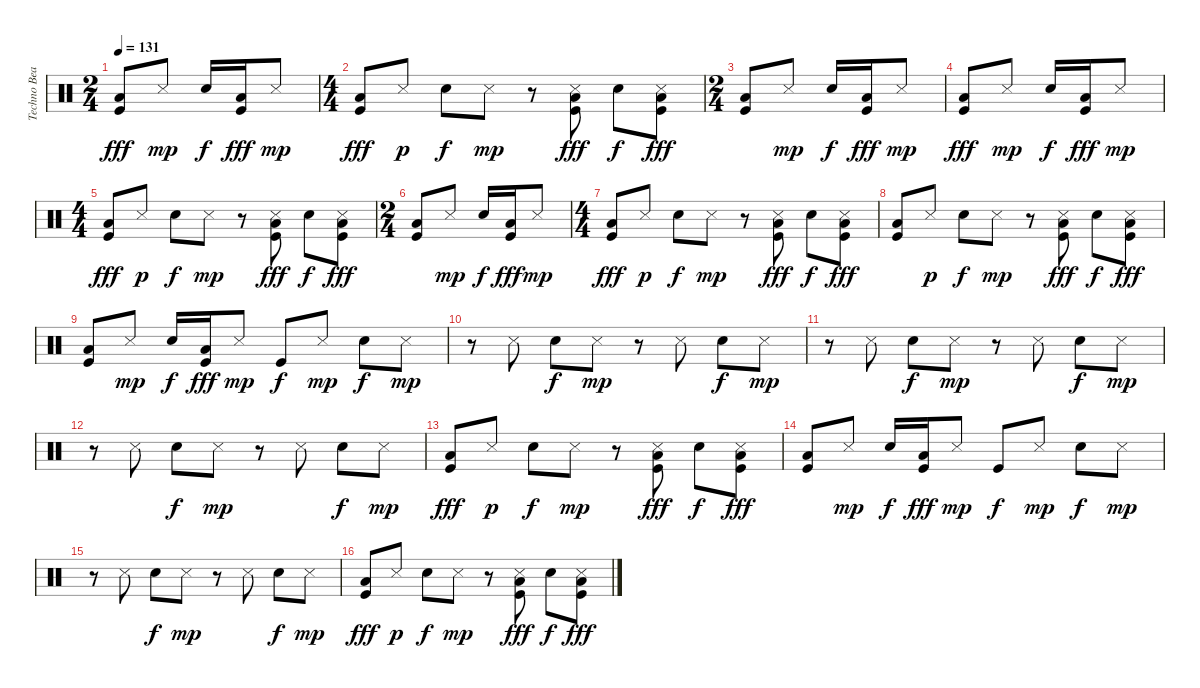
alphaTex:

\track ("Techno Beat" "Techno Bea") {instrument percussion}
\staff {score}
\articulation defaults
\ts (2 4)
\tempo 131
\clef neutral
\ks c
("Low Tom (hit)" "Kick (hit)").8{dy fff} "Snare (side stick) 3".8{dy mp} "Electric Snare (hit)".16{dy f} ("Low Tom (hit)" "Kick (hit)").16{dy fff} "Snare (side stick) 3".8{dy mp} |
\ts (4 4)
("Low Tom (hit)" "Kick (hit)").8{dy fff} "Snare (side stick) 3".8{dy p} "Electric Snare (hit)".8{dy f} "Snare (side stick) 3".8{dy mp} r.8 ("Snare (side stick) 3" "Low Tom (hit)" "Kick (hit)").8{dy fff} "Electric Snare (hit)".8{dy f} ("Snare (side stick) 3" "Low Tom (hit)" "Kick (hit)").8{dy fff} |
\ts (2 4)
("Low Tom (hit)" "Kick (hit)").8 "Snare (side stick) 3".8{dy mp} "Electric Snare (hit)".16{dy f} ("Low Tom (hit)" "Kick (hit)").16{dy fff} "Snare (side stick) 3".8{dy mp} |
("Low Tom (hit)" "Kick (hit)").8{dy fff} "Snare (side stick) 3".8{dy mp} "Electric Snare (hit)".16{dy f} ("Low Tom (hit)" "Kick (hit)").16{dy fff} "Snare (side stick) 3".8{dy mp} |
\ts (4 4)
("Low Tom (hit)" "Kick (hit)").8{dy fff} "Snare (side stick) 3".8{dy p} "Electric Snare (hit)".8{dy f} "Snare (side stick) 3".8{dy mp} r.8 ("Snare (side stick) 3" "Low Tom (hit)" "Kick (hit)").8{dy fff} "Electric Snare (hit)".8{dy f} ("Snare (side stick) 3" "Low Tom (hit)" "Kick (hit)").8{dy fff} |
\ts (2 4)
("Low Tom (hit)" "Kick (hit)").8 "Snare (side stick) 3".8{dy mp} "Electric Snare (hit)".16{dy f} ("Low Tom (hit)" "Kick (hit)").16{dy fff} "Snare (side stick) 3".8{dy mp} |
\ts (4 4)
("Low Tom (hit)" "Kick (hit)").8{dy fff} "Snare (side stick) 3".8{dy p} "Electric Snare (hit)".8{dy f} "Snare (side stick) 3".8{dy mp} r.8 ("Snare (side stick) 3" "Low Tom (hit)" "Kick (hit)").8{dy fff} "Electric Snare (hit)".8{dy f} ("Snare (side stick) 3" "Low Tom (hit)" "Kick (hit)").8{dy fff} |
("Low Tom (hit)" "Kick (hit)").8 "Snare (side stick) 3".8{dy p} "Electric Snare (hit)".8{dy f} "Snare (side stick) 3".8{dy mp} r.8 ("Snare (side stick) 3" "Low Tom (hit)" "Kick (hit)").8{dy fff} "Electric Snare (hit)".8{dy f} ("Snare (side stick) 3" "Low Tom (hit)" "Kick (hit)").8{dy fff} |
("Low Tom (hit)" "Kick (hit)").8 "Snare (side stick) 3".8{dy mp} "Electric Snare (hit)".16{dy f} ("Low Tom (hit)" "Kick (hit)").16{dy fff} "Snare (side stick) 3".8{dy mp} "Kick (hit)".8{dy f} "Snare (side stick) 3".8{dy mp} "Electric Snare (hit)".8{dy f} "Snare (side stick) 3".8{dy mp} |
r.8 "Snare (side stick) 3".8 "Electric Snare (hit)".8{dy f} "Snare (side stick) 3".8{dy mp} r.8 "Snare (side stick) 3".8 "Electric Snare (hit)".8{dy f} "Snare (side stick) 3".8{dy mp} |
r.8 "Snare (side stick) 3".8 "Electric Snare (hit)".8{dy f} "Snare (side stick) 3".8{dy mp} r.8 "Snare (side stick) 3".8 "Electric Snare (hit)".8{dy f} "Snare (side stick) 3".8{dy mp} |
r.8 "Snare (side stick) 3".8 "Electric Snare (hit)".8{dy f} "Snare (side stick) 3".8{dy mp} r.8 "Snare (side stick) 3".8 "Electric Snare (hit)".8{dy f} "Snare (side stick) 3".8{dy mp} |
("Low Tom (hit)" "Kick (hit)").8{dy fff} "Snare (side stick) 3".8{dy p} "Electric Snare (hit)".8{dy f} "Snare (side stick) 3".8{dy mp} r.8 ("Snare (side stick) 3" "Low Tom (hit)" "Kick (hit)").8{dy fff} "Electric Snare (hit)".8{dy f} ("Snare (side stick) 3" "Low Tom (hit)" "Kick (hit)").8{dy fff} |
("Low Tom (hit)" "Kick (hit)").8 "Snare (side stick) 3".8{dy mp} "Electric Snare (hit)".16{dy f} ("Low Tom (hit)" "Kick (hit)").16{dy fff} "Snare (side stick) 3".8{dy mp} "Kick (hit)".8{dy f} "Snare (side stick) 3".8{dy mp} "Electric Snare (hit)".8{dy f} "Snare (side stick) 3".8{dy mp} |
r.8 "Snare (side stick) 3".8 "Electric Snare (hit)".8{dy f} "Snare (side stick) 3".8{dy mp} r.8 "Snare (side stick) 3".8 "Electric Snare (hit)".8{dy f} "Snare (side stick) 3".8{dy mp} |
("Low Tom (hit)" "Kick (hit)").8{dy fff} "Snare (side stick) 3".8{dy p} "Electric Snare (hit)".8{dy f} "Snare (side stick) 3".8{dy mp} r.8 ("Snare (side stick) 3" "Low Tom (hit)" "Kick (hit)").8{dy fff} "Electric Snare (hit)".8{dy f} ("Snare (side stick) 3" "Low Tom (hit)" "Kick (hit)").8{dy fff}
